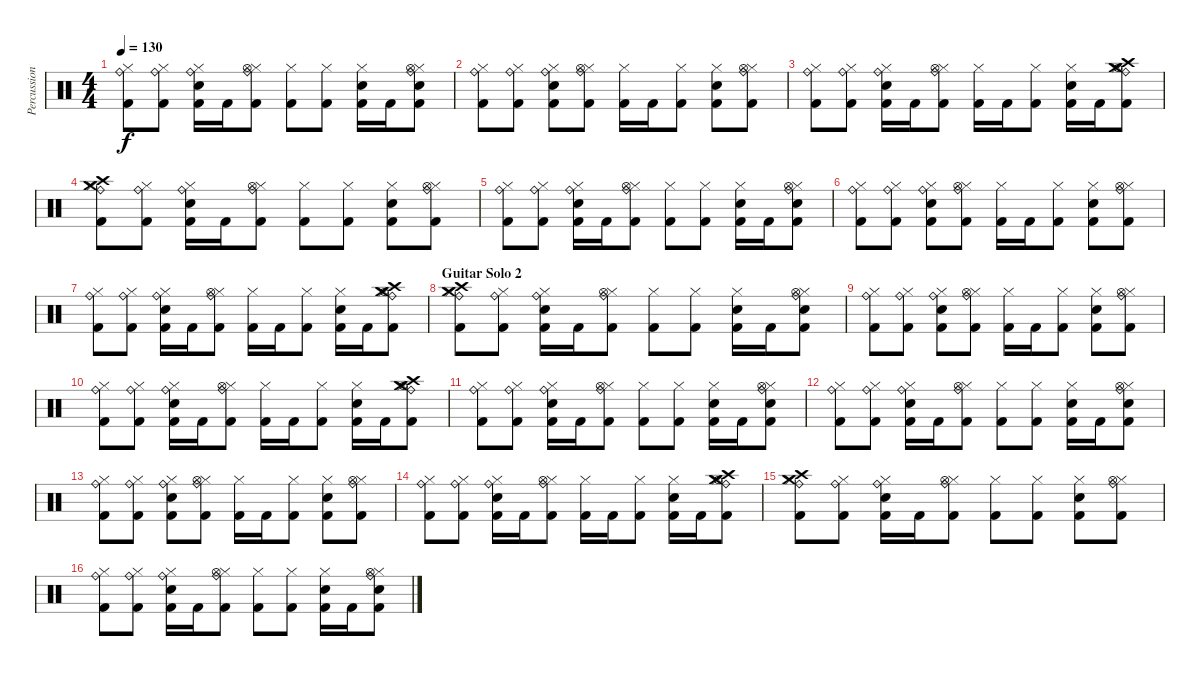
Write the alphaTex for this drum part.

\track ("Percussion" "Percussion") {instrument percussion}
\staff {score}
\articulation defaults
\ts (4 4)
\tempo 130
\clef neutral
\ks c
("Hi-Hat (closed)" "Ride (bell)" "Kick (hit) 2").8{dy f} ("Hi-Hat (closed)" "Ride (bell)" "Kick (hit) 2").8 ("Hi-Hat (closed)" "Ride (bell)" "Electric Snare (hit)" "Kick (hit) 2").16 "Kick (hit) 2".16 ("Hi-Hat (closed)" "Ride (bell)" "Hi-Hat (open)" "Kick (hit) 2").8 ("Hi-Hat (closed)" "Kick (hit) 2").8 ("Hi-Hat (closed)" "Kick (hit) 2").8 ("Hi-Hat (closed)" "Electric Snare (hit)" "Kick (hit) 2").16 "Kick (hit) 2".16 ("Hi-Hat (closed)" "Ride (bell)" "Hi-Hat (open)" "Electric Snare (hit)" "Kick (hit) 2").8 |
("Hi-Hat (closed)" "Ride (bell)" "Kick (hit) 2").8 ("Hi-Hat (closed)" "Ride (bell)" "Kick (hit) 2").8 ("Hi-Hat (closed)" "Ride (bell)" "Electric Snare (hit)" "Kick (hit) 2").8 ("Hi-Hat (closed)" "Ride (bell)" "Hi-Hat (open)" "Kick (hit) 2").8 ("Hi-Hat (closed)" "Kick (hit) 2").16 "Kick (hit) 2".16 ("Hi-Hat (closed)" "Kick (hit) 2").8 ("Hi-Hat (closed)" "Electric Snare (hit)" "Kick (hit) 2").8 ("Hi-Hat (closed)" "Ride (bell)" "Hi-Hat (open)" "Kick (hit) 2").8 |
("Hi-Hat (closed)" "Ride (bell)" "Kick (hit) 2").8 ("Hi-Hat (closed)" "Ride (bell)" "Kick (hit) 2").8 ("Hi-Hat (closed)" "Ride (bell)" "Electric Snare (hit)" "Kick (hit) 2").16 "Kick (hit) 2".16 ("Hi-Hat (closed)" "Ride (bell)" "Hi-Hat (open)" "Kick (hit) 2").8 ("Hi-Hat (closed)" "Kick (hit) 2").16 "Kick (hit) 2".16 ("Hi-Hat (closed)" "Kick (hit) 2").8 ("Hi-Hat (closed)" "Electric Snare (hit)" "Kick (hit) 2").16 "Kick (hit) 2".16 ("Hi-Hat (closed)" "Ride (bell)" "Hi-Hat (open)" "Crash high (hit)" "Kick (hit) 2" "Crash medium (hit)").8 |
("Hi-Hat (closed)" "Crash medium (hit)" "Ride (bell)" "Kick (hit) 2" "Crash high (hit)").8 ("Hi-Hat (closed)" "Ride (bell)" "Kick (hit) 2").8 ("Hi-Hat (closed)" "Ride (bell)" "Electric Snare (hit)" "Kick (hit) 2").16 "Kick (hit) 2".16 ("Hi-Hat (closed)" "Ride (bell)" "Hi-Hat (open)" "Kick (hit) 2").8 ("Hi-Hat (closed)" "Kick (hit) 2").8 ("Hi-Hat (closed)" "Kick (hit) 2").8 ("Hi-Hat (closed)" "Electric Snare (hit)" "Kick (hit) 2").8 ("Hi-Hat (closed)" "Ride (bell)" "Hi-Hat (open)" "Kick (hit) 2").8 |
("Hi-Hat (closed)" "Ride (bell)" "Kick (hit) 2").8 ("Hi-Hat (closed)" "Ride (bell)" "Kick (hit) 2").8 ("Hi-Hat (closed)" "Ride (bell)" "Electric Snare (hit)" "Kick (hit) 2").16 "Kick (hit) 2".16 ("Hi-Hat (closed)" "Ride (bell)" "Hi-Hat (open)" "Kick (hit) 2").8 ("Hi-Hat (closed)" "Kick (hit) 2").8 ("Hi-Hat (closed)" "Kick (hit) 2").8 ("Hi-Hat (closed)" "Electric Snare (hit)" "Kick (hit) 2").16 "Kick (hit) 2".16 ("Hi-Hat (closed)" "Ride (bell)" "Hi-Hat (open)" "Electric Snare (hit)" "Kick (hit) 2").8 |
("Hi-Hat (closed)" "Ride (bell)" "Kick (hit) 2").8 ("Hi-Hat (closed)" "Ride (bell)" "Kick (hit) 2").8 ("Hi-Hat (closed)" "Ride (bell)" "Electric Snare (hit)" "Kick (hit) 2").8 ("Hi-Hat (closed)" "Ride (bell)" "Hi-Hat (open)" "Kick (hit) 2").8 ("Hi-Hat (closed)" "Kick (hit) 2").16 "Kick (hit) 2".16 ("Hi-Hat (closed)" "Kick (hit) 2").8 ("Hi-Hat (closed)" "Electric Snare (hit)" "Kick (hit) 2").8 ("Hi-Hat (closed)" "Ride (bell)" "Hi-Hat (open)" "Kick (hit) 2").8 |
("Hi-Hat (closed)" "Ride (bell)" "Kick (hit) 2").8 ("Hi-Hat (closed)" "Ride (bell)" "Kick (hit) 2").8 ("Hi-Hat (closed)" "Ride (bell)" "Electric Snare (hit)" "Kick (hit) 2").16 "Kick (hit) 2".16 ("Hi-Hat (closed)" "Ride (bell)" "Hi-Hat (open)" "Kick (hit) 2").8 ("Hi-Hat (closed)" "Kick (hit) 2").16 "Kick (hit) 2".16 ("Hi-Hat (closed)" "Kick (hit) 2").8 ("Hi-Hat (closed)" "Electric Snare (hit)" "Kick (hit) 2").16 "Kick (hit) 2".16 ("Hi-Hat (closed)" "Ride (bell)" "Hi-Hat (open)" "Crash high (hit)" "Kick (hit) 2" "Crash medium (hit)").8 |
\section ("" "Guitar Solo 2")
("Hi-Hat (closed)" "Crash medium (hit)" "Ride (bell)" "Crash high (hit)" "Kick (hit) 2").8 ("Hi-Hat (closed)" "Ride (bell)" "Kick (hit) 2").8 ("Hi-Hat (closed)" "Ride (bell)" "Electric Snare (hit)" "Kick (hit) 2").16 "Kick (hit) 2".16 ("Hi-Hat (closed)" "Ride (bell)" "Hi-Hat (open)" "Kick (hit) 2").8 ("Hi-Hat (closed)" "Kick (hit) 2").8 ("Hi-Hat (closed)" "Kick (hit) 2").8 ("Hi-Hat (closed)" "Electric Snare (hit)" "Kick (hit) 2").16 "Kick (hit) 2".16 ("Hi-Hat (closed)" "Ride (bell)" "Hi-Hat (open)" "Electric Snare (hit)" "Kick (hit) 2").8 |
("Hi-Hat (closed)" "Ride (bell)" "Kick (hit) 2").8 ("Hi-Hat (closed)" "Ride (bell)" "Kick (hit) 2").8 ("Hi-Hat (closed)" "Ride (bell)" "Electric Snare (hit)" "Kick (hit) 2").8 ("Hi-Hat (closed)" "Ride (bell)" "Hi-Hat (open)" "Kick (hit) 2").8 ("Hi-Hat (closed)" "Kick (hit) 2").16 "Kick (hit) 2".16 ("Hi-Hat (closed)" "Kick (hit) 2").8 ("Hi-Hat (closed)" "Electric Snare (hit)" "Kick (hit) 2").8 ("Hi-Hat (closed)" "Ride (bell)" "Hi-Hat (open)" "Kick (hit) 2").8 |
("Hi-Hat (closed)" "Ride (bell)" "Kick (hit) 2").8 ("Hi-Hat (closed)" "Ride (bell)" "Kick (hit) 2").8 ("Hi-Hat (closed)" "Ride (bell)" "Electric Snare (hit)" "Kick (hit) 2").16 "Kick (hit) 2".16 ("Hi-Hat (closed)" "Ride (bell)" "Hi-Hat (open)" "Kick (hit) 2").8 ("Hi-Hat (closed)" "Kick (hit) 2").16 "Kick (hit) 2".16 ("Hi-Hat (closed)" "Kick (hit) 2").8 ("Hi-Hat (closed)" "Electric Snare (hit)" "Kick (hit) 2").16 "Kick (hit) 2".16 ("Hi-Hat (closed)" "Ride (bell)" "Hi-Hat (open)" "Crash high (hit)" "Kick (hit) 2" "Crash medium (hit)").8 |
("Hi-Hat (closed)" "Ride (bell)" "Kick (hit) 2").8 ("Hi-Hat (closed)" "Ride (bell)" "Kick (hit) 2").8 ("Hi-Hat (closed)" "Ride (bell)" "Electric Snare (hit)" "Kick (hit) 2").16 "Kick (hit) 2".16 ("Hi-Hat (closed)" "Ride (bell)" "Hi-Hat (open)" "Kick (hit) 2").8 ("Hi-Hat (closed)" "Kick (hit) 2").8 ("Hi-Hat (closed)" "Kick (hit) 2").8 ("Hi-Hat (closed)" "Electric Snare (hit)" "Kick (hit) 2").16 "Kick (hit) 2".16 ("Hi-Hat (closed)" "Ride (bell)" "Hi-Hat (open)" "Electric Snare (hit)" "Kick (hit) 2").8 |
("Hi-Hat (closed)" "Ride (bell)" "Kick (hit) 2").8 ("Hi-Hat (closed)" "Ride (bell)" "Kick (hit) 2").8 ("Hi-Hat (closed)" "Ride (bell)" "Electric Snare (hit)" "Kick (hit) 2").16 "Kick (hit) 2".16 ("Hi-Hat (closed)" "Ride (bell)" "Hi-Hat (open)" "Kick (hit) 2").8 ("Hi-Hat (closed)" "Kick (hit) 2").8 ("Hi-Hat (closed)" "Kick (hit) 2").8 ("Hi-Hat (closed)" "Electric Snare (hit)" "Kick (hit) 2").16 "Kick (hit) 2".16 ("Hi-Hat (closed)" "Ride (bell)" "Hi-Hat (open)" "Electric Snare (hit)" "Kick (hit) 2").8 |
("Hi-Hat (closed)" "Ride (bell)" "Kick (hit) 2").8 ("Hi-Hat (closed)" "Ride (bell)" "Kick (hit) 2").8 ("Hi-Hat (closed)" "Ride (bell)" "Electric Snare (hit)" "Kick (hit) 2").8 ("Hi-Hat (closed)" "Ride (bell)" "Hi-Hat (open)" "Kick (hit) 2").8 ("Hi-Hat (closed)" "Kick (hit) 2").16 "Kick (hit) 2".16 ("Hi-Hat (closed)" "Kick (hit) 2").8 ("Hi-Hat (closed)" "Electric Snare (hit)" "Kick (hit) 2").8 ("Hi-Hat (closed)" "Ride (bell)" "Hi-Hat (open)" "Kick (hit) 2").8 |
("Hi-Hat (closed)" "Ride (bell)" "Kick (hit) 2").8 ("Hi-Hat (closed)" "Ride (bell)" "Kick (hit) 2").8 ("Hi-Hat (closed)" "Ride (bell)" "Electric Snare (hit)" "Kick (hit) 2").16 "Kick (hit) 2".16 ("Hi-Hat (closed)" "Ride (bell)" "Hi-Hat (open)" "Kick (hit) 2").8 ("Hi-Hat (closed)" "Kick (hit) 2").16 "Kick (hit) 2".16 ("Hi-Hat (closed)" "Kick (hit) 2").8 ("Hi-Hat (closed)" "Electric Snare (hit)" "Kick (hit) 2").16 "Kick (hit) 2".16 ("Hi-Hat (closed)" "Ride (bell)" "Hi-Hat (open)" "Crash high (hit)" "Kick (hit) 2" "Crash medium (hit)").8 |
("Hi-Hat (closed)" "Crash medium (hit)" "Ride (bell)" "Kick (hit) 2" "Crash high (hit)").8 ("Hi-Hat (closed)" "Ride (bell)" "Kick (hit) 2").8 ("Hi-Hat (closed)" "Ride (bell)" "Electric Snare (hit)" "Kick (hit) 2").16 "Kick (hit) 2".16 ("Hi-Hat (closed)" "Ride (bell)" "Hi-Hat (open)" "Kick (hit) 2").8 ("Hi-Hat (closed)" "Kick (hit) 2").8 ("Hi-Hat (closed)" "Kick (hit) 2").8 ("Hi-Hat (closed)" "Electric Snare (hit)" "Kick (hit) 2").8 ("Hi-Hat (closed)" "Ride (bell)" "Hi-Hat (open)" "Kick (hit) 2").8 |
("Hi-Hat (closed)" "Ride (bell)" "Kick (hit) 2").8 ("Hi-Hat (closed)" "Ride (bell)" "Kick (hit) 2").8 ("Hi-Hat (closed)" "Ride (bell)" "Electric Snare (hit)" "Kick (hit) 2").16 "Kick (hit) 2".16 ("Hi-Hat (closed)" "Ride (bell)" "Hi-Hat (open)" "Kick (hit) 2").8 ("Hi-Hat (closed)" "Kick (hit) 2").8 ("Hi-Hat (closed)" "Kick (hit) 2").8 ("Hi-Hat (closed)" "Electric Snare (hit)" "Kick (hit) 2").16 "Kick (hit) 2".16 ("Hi-Hat (closed)" "Ride (bell)" "Hi-Hat (open)" "Electric Snare (hit)" "Kick (hit) 2").8
